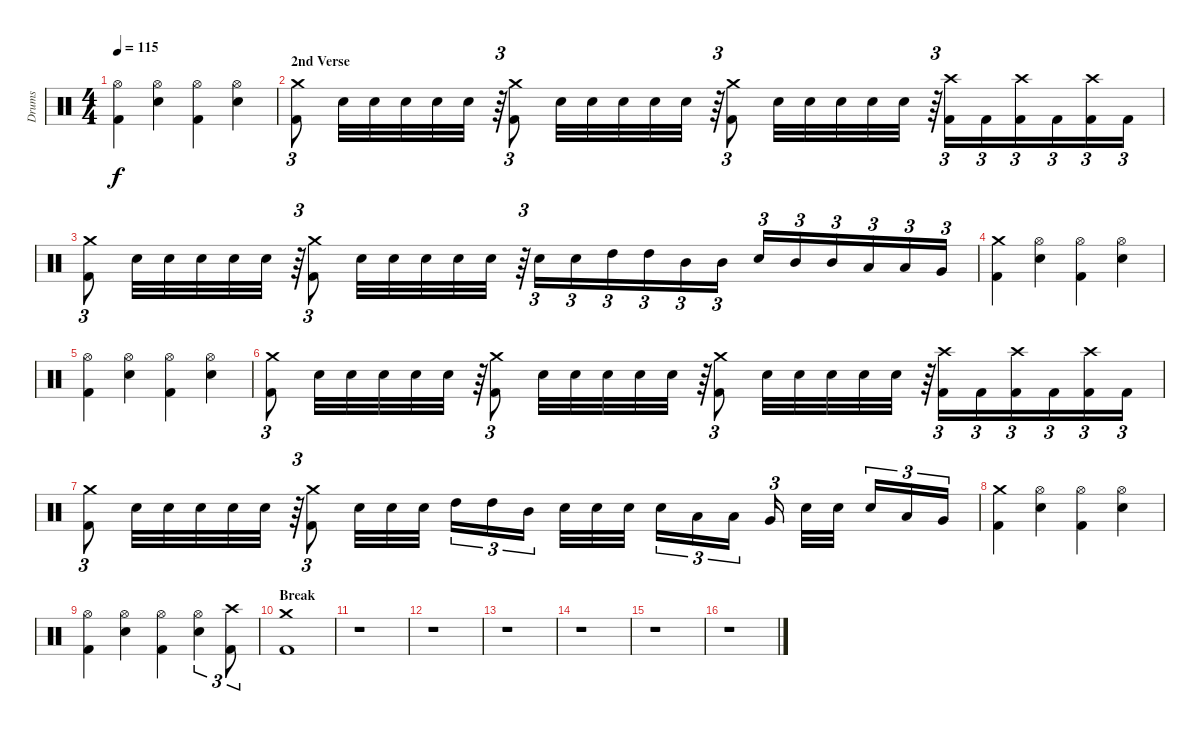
\track ("Drums" "Drums") {instrument percussion}
\staff {score}
\articulation defaults
\ts (4 4)
\tempo 115
\clef neutral
\ks c
("Kick (hit) 2" "Hi-Hat (open)").4{dy f} ("Electric Snare (hit)" "Hi-Hat (open)").4 ("Kick (hit) 2" "Hi-Hat (open)").4 ("Electric Snare (hit)" "Hi-Hat (open)").4 |
\section ("" "2nd Verse")
("Kick (hit) 2" "Crash medium (hit)").8{tu (3 2)} "Electric Snare (hit)".32 "Electric Snare (hit)".32 "Electric Snare (hit)".32 "Electric Snare (hit)".32 "Electric Snare (hit)".32 r.64{tu (3 2)} ("Kick (hit) 2" "Crash medium (hit)").8{tu (3 2)} "Electric Snare (hit)".32 "Electric Snare (hit)".32 "Electric Snare (hit)".32 "Electric Snare (hit)".32 "Electric Snare (hit)".32 r.64{tu (3 2)} ("Kick (hit) 2" "Crash medium (hit)").8{tu (3 2)} "Electric Snare (hit)".32 "Electric Snare (hit)".32 "Electric Snare (hit)".32 "Electric Snare (hit)".32 "Electric Snare (hit)".32 r.64{tu (3 2)} ("Kick (hit) 2" "Crash high (hit)").16{tu (3 2)} "Kick (hit) 2".16{tu (3 2)} ("Kick (hit) 2" "Crash high (hit)").16{tu (3 2)} "Kick (hit) 2".16{tu (3 2)} ("Kick (hit) 2" "Crash high (hit)").16{tu (3 2)} "Kick (hit) 2".16{tu (3 2)} |
("Kick (hit) 2" "Crash medium (hit)").8{tu (3 2)} "Electric Snare (hit)".32 "Electric Snare (hit)".32 "Electric Snare (hit)".32 "Electric Snare (hit)".32 "Electric Snare (hit)".32 r.64{tu (3 2)} ("Kick (hit) 2" "Crash medium (hit)").8{tu (3 2)} "Electric Snare (hit)".32 "Electric Snare (hit)".32 "Electric Snare (hit)".32 "Electric Snare (hit)".32 "Electric Snare (hit)".32 r.64{tu (3 2)} "Electric Snare (hit)".16{tu (3 2)} "Electric Snare (hit)".16{tu (3 2)} "High Tom (hit)".16{tu (3 2)} "High Tom (hit)".16{tu (3 2)} "Mid Tom (hit)".16{tu (3 2)} "Mid Tom (hit)".16{tu (3 2)} "Electric Snare (hit)".16{tu (3 2)} "Mid Tom (hit)".16{tu (3 2)} "Mid Tom (hit)".16{tu (3 2)} "Low Tom (hit)".16{tu (3 2)} "Low Tom (hit)".16{tu (3 2)} "Very Low Tom (hit)".16{tu (3 2)} |
("Kick (hit) 2" "Crash medium (hit)").4 ("Electric Snare (hit)" "Hi-Hat (open)").4 ("Kick (hit) 2" "Hi-Hat (open)").4 ("Electric Snare (hit)" "Hi-Hat (open)").4 |
("Kick (hit) 2" "Hi-Hat (open)").4 ("Electric Snare (hit)" "Hi-Hat (open)").4 ("Kick (hit) 2" "Hi-Hat (open)").4 ("Electric Snare (hit)" "Hi-Hat (open)").4 |
("Kick (hit) 2" "Crash medium (hit)").8{tu (3 2)} "Electric Snare (hit)".32 "Electric Snare (hit)".32 "Electric Snare (hit)".32 "Electric Snare (hit)".32 "Electric Snare (hit)".32 r.64{tu (3 2)} ("Kick (hit) 2" "Crash medium (hit)").8{tu (3 2)} "Electric Snare (hit)".32 "Electric Snare (hit)".32 "Electric Snare (hit)".32 "Electric Snare (hit)".32 "Electric Snare (hit)".32 r.64{tu (3 2)} ("Kick (hit) 2" "Crash medium (hit)").8{tu (3 2)} "Electric Snare (hit)".32 "Electric Snare (hit)".32 "Electric Snare (hit)".32 "Electric Snare (hit)".32 "Electric Snare (hit)".32 r.64{tu (3 2)} ("Kick (hit) 2" "Crash high (hit)").16{tu (3 2)} "Kick (hit) 2".16{tu (3 2)} ("Kick (hit) 2" "Crash high (hit)").16{tu (3 2)} "Kick (hit) 2".16{tu (3 2)} ("Kick (hit) 2" "Crash high (hit)").16{tu (3 2)} "Kick (hit) 2".16{tu (3 2)} |
("Kick (hit) 2" "Crash medium (hit)").8{tu (3 2)} "Electric Snare (hit)".32 "Electric Snare (hit)".32 "Electric Snare (hit)".32 "Electric Snare (hit)".32 "Electric Snare (hit)".32 r.64{tu (3 2)} ("Kick (hit) 2" "Crash medium (hit)").8{tu (3 2)} "Electric Snare (hit)".32 "Electric Snare (hit)".32 "Electric Snare (hit)".32 "High Tom (hit)".16{tu (3 2)} "High Tom (hit)".16{tu (3 2)} "Mid Tom (hit)".16{tu (3 2)} "Electric Snare (hit)".32 "Electric Snare (hit)".32 "Electric Snare (hit)".32 "Electric Snare (hit)".16{tu (3 2)} "Low Tom (hit)".16{tu (3 2)} "Low Tom (hit)".16{tu (3 2)} "Very Low Tom (hit)".16{tu (3 2)} "Electric Snare (hit)".32 "Electric Snare (hit)".32 "Electric Snare (hit)".16{tu (3 2)} "Low Tom (hit)".16{tu (3 2)} "Very Low Tom (hit)".16{tu (3 2)} |
("Kick (hit) 2" "Crash medium (hit)").4 ("Electric Snare (hit)" "Hi-Hat (open)").4 ("Kick (hit) 2" "Hi-Hat (open)").4 ("Electric Snare (hit)" "Hi-Hat (open)").4 |
("Kick (hit) 2" "Hi-Hat (open)").4 ("Electric Snare (hit)" "Hi-Hat (open)").4 ("Kick (hit) 2" "Hi-Hat (open)").4 ("Electric Snare (hit)" "Hi-Hat (open)").4{tu (3 2)} ("Kick (hit) 2" "Crash high (hit)").8{tu (3 2)} |
\section ("" "Break")
("Kick (hit) 2" "Crash medium (hit)").1 |
r.1 |
r.1 |
r.1 |
r.1 |
r.1 |
r.1
